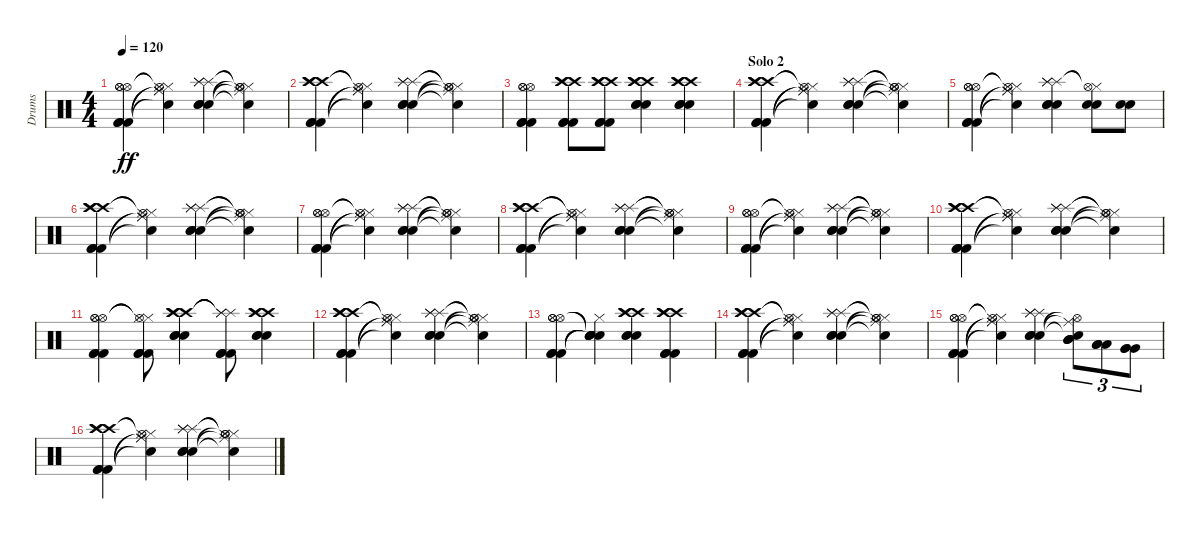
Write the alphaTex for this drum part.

\track ("Drums" "Drums") {instrument percussion}
\staff {score}
\articulation defaults
\ts (4 4)
\tempo 120
\clef neutral
\ks c
("Hi-Hat (open)" "Hi-Hat (open)" "Hi-Hat (open)" "Kick (hit) 2" "Kick (hit) 2" "Kick (hit) 2").4{dy ff} ("Hi-Hat (closed)" "Hi-Hat (closed)"{t} "Hi-Hat (open)"{t} "Ride (middle)"{t} "Ride (middle)"{t} "Snare (hit)"{t}).4 ("Splash (hit)" "Splash (hit)" "Splash (hit)" "Snare (hit) 2" "Snare (hit) 2" "Snare (hit) 2").4 ("Hi-Hat (closed)" "Hi-Hat (closed)"{t} "Hi-Hat (open)"{t} "Hi-Hat (open)"{t} "Ride (middle)"{t} "Snare (hit)"{t}).4 |
("Crash high (hit)" "Crash high (hit)" "Crash high (hit)" "Kick (hit) 2" "Kick (hit) 2" "Kick (hit) 2").4 ("Hi-Hat (closed)" "Hi-Hat (closed)"{t} "Hi-Hat (open)"{t} "Ride (middle)"{t} "Ride (middle)"{t} "Snare (hit)"{t}).4 ("Splash (hit)" "Splash (hit)" "Splash (hit)" "Snare (hit) 2" "Snare (hit) 2" "Snare (hit) 2").4 ("Hi-Hat (closed)" "Hi-Hat (closed)"{t} "Hi-Hat (open)"{t} "Hi-Hat (open)"{t} "Ride (middle)"{t} "Snare (hit)"{t}).4 |
("Hi-Hat (open)" "Hi-Hat (open)" "Hi-Hat (open)" "Kick (hit) 2" "Kick (hit) 2" "Kick (hit) 2").4 ("Crash high (hit)" "Crash high (hit)" "Crash high (hit)" "Kick (hit) 2" "Kick (hit) 2" "Kick (hit) 2").8 ("Crash high (hit)" "Crash high (hit)" "Crash high (hit)" "Kick (hit) 2" "Kick (hit) 2" "Kick (hit) 2").8 ("Crash high (hit)" "Crash high (hit)" "Crash high (hit)" "Snare (hit) 2" "Snare (hit) 2" "Snare (hit) 2").4 ("Crash high (hit)" "Crash high (hit)" "Crash high (hit)" "Snare (hit) 2" "Snare (hit) 2" "Snare (hit) 2").4 |
\section ("" "Solo 2")
("Crash high (hit)" "Crash high (hit)" "Crash high (hit)" "Kick (hit) 2" "Kick (hit) 2" "Kick (hit) 2").4 ("Hi-Hat (closed)" "Hi-Hat (closed)"{t} "Hi-Hat (open)"{t} "Ride (middle)"{t} "Ride (middle)"{t} "Snare (hit)"{t}).4 ("Splash (hit)" "Splash (hit)" "Splash (hit)" "Snare (hit) 2" "Snare (hit) 2" "Snare (hit) 2").4 ("Hi-Hat (closed)" "Hi-Hat (closed)"{t} "Hi-Hat (open)"{t} "Hi-Hat (open)"{t} "Ride (middle)"{t} "Snare (hit)"{t}).4 |
("Hi-Hat (open)" "Hi-Hat (open)" "Hi-Hat (open)" "Kick (hit) 2" "Kick (hit) 2" "Kick (hit) 2").4 ("Hi-Hat (closed)" "Hi-Hat (closed)"{t} "Hi-Hat (open)"{t} "Ride (middle)"{t} "Ride (middle)"{t} "Snare (hit)"{t}).4 ("Splash (hit)" "Splash (hit)" "Splash (hit)" "Snare (hit) 2" "Snare (hit) 2" "Snare (hit) 2").4 ("Hi-Hat (closed)"{t} "Hi-Hat (open)"{t} "Snare (hit) 2" "Snare (hit) 2").8 ("Snare (hit) 2" "Snare (hit) 2").8 |
("Crash high (hit)" "Crash high (hit)" "Crash high (hit)" "Kick (hit) 2" "Kick (hit) 2" "Kick (hit) 2").4 ("Hi-Hat (closed)" "Hi-Hat (closed)"{t} "Hi-Hat (open)"{t} "Ride (middle)"{t} "Ride (middle)"{t} "Snare (hit)"{t}).4 ("Splash (hit)" "Splash (hit)" "Splash (hit)" "Snare (hit) 2" "Snare (hit) 2" "Snare (hit) 2").4 ("Hi-Hat (closed)" "Hi-Hat (closed)"{t} "Hi-Hat (open)"{t} "Hi-Hat (open)"{t} "Ride (middle)"{t} "Snare (hit)"{t}).4 |
("Hi-Hat (open)" "Hi-Hat (open)" "Hi-Hat (open)" "Kick (hit) 2" "Kick (hit) 2" "Kick (hit) 2").4 ("Hi-Hat (closed)" "Hi-Hat (closed)"{t} "Hi-Hat (open)"{t} "Ride (middle)"{t} "Ride (middle)"{t} "Snare (hit)"{t}).4 ("Splash (hit)" "Splash (hit)" "Splash (hit)" "Snare (hit) 2" "Snare (hit) 2" "Snare (hit) 2").4 ("Hi-Hat (closed)" "Hi-Hat (closed)"{t} "Hi-Hat (open)"{t} "Hi-Hat (open)"{t} "Ride (middle)"{t} "Snare (hit)"{t}).4 |
("Crash high (hit)" "Crash high (hit)" "Crash high (hit)" "Kick (hit) 2" "Kick (hit) 2" "Kick (hit) 2").4 ("Hi-Hat (closed)" "Hi-Hat (closed)"{t} "Hi-Hat (open)"{t} "Ride (middle)"{t} "Ride (middle)"{t} "Snare (hit)"{t}).4 ("Splash (hit)" "Splash (hit)" "Splash (hit)" "Snare (hit) 2" "Snare (hit) 2" "Snare (hit) 2").4 ("Hi-Hat (closed)" "Hi-Hat (closed)"{t} "Hi-Hat (open)"{t} "Hi-Hat (open)"{t} "Ride (middle)"{t} "Snare (hit)"{t}).4 |
("Hi-Hat (open)" "Hi-Hat (open)" "Hi-Hat (open)" "Kick (hit) 2" "Kick (hit) 2" "Kick (hit) 2").4 ("Hi-Hat (closed)" "Hi-Hat (closed)"{t} "Hi-Hat (open)"{t} "Ride (middle)"{t} "Ride (middle)"{t} "Snare (hit)"{t}).4 ("Splash (hit)" "Splash (hit)" "Splash (hit)" "Snare (hit) 2" "Snare (hit) 2" "Snare (hit) 2").4 ("Hi-Hat (closed)" "Hi-Hat (closed)"{t} "Hi-Hat (open)"{t} "Hi-Hat (open)"{t} "Ride (middle)"{t} "Snare (hit)"{t}).4 |
("Crash high (hit)" "Crash high (hit)" "Crash high (hit)" "Kick (hit) 2" "Kick (hit) 2" "Kick (hit) 2").4 ("Hi-Hat (closed)" "Hi-Hat (closed)"{t} "Hi-Hat (open)"{t} "Ride (middle)"{t} "Ride (middle)"{t} "Snare (hit)"{t}).4 ("Splash (hit)" "Splash (hit)" "Splash (hit)" "Snare (hit) 2" "Snare (hit) 2" "Snare (hit) 2").4 ("Hi-Hat (closed)" "Hi-Hat (closed)"{t} "Hi-Hat (open)"{t} "Hi-Hat (open)"{t} "Ride (middle)"{t} "Snare (hit)"{t}).4 |
("Hi-Hat (open)" "Hi-Hat (open)" "Hi-Hat (open)" "Kick (hit) 2" "Kick (hit) 2" "Kick (hit) 2").4 ("Hi-Hat (closed)"{t} "Hi-Hat (closed)"{t} "Hi-Hat (open)"{t} "Kick (hit) 2" "Kick (hit) 2" "Kick (hit) 2").8 ("Crash high (hit)" "Crash high (hit)" "Crash high (hit)" "Snare (hit) 2" "Snare (hit) 2" "Snare (hit) 2").4 ("Splash (hit)"{t} "Splash (hit)"{t} "Splash (hit)"{t} "Kick (hit) 2" "Kick (hit) 2" "Kick (hit) 2").8 ("Crash high (hit)" "Crash high (hit)" "Crash high (hit)" "Snare (hit) 2" "Snare (hit) 2" "Snare (hit) 2").4 |
("Crash high (hit)" "Crash high (hit)" "Crash high (hit)" "Kick (hit) 2" "Kick (hit) 2" "Kick (hit) 2").4 ("Hi-Hat (closed)" "Hi-Hat (closed)"{t} "Hi-Hat (open)"{t} "Ride (middle)"{t} "Ride (middle)"{t} "Snare (hit)"{t}).4 ("Splash (hit)" "Splash (hit)" "Splash (hit)" "Snare (hit) 2" "Snare (hit) 2" "Snare (hit) 2").4 ("Hi-Hat (closed)" "Hi-Hat (closed)"{t} "Hi-Hat (open)"{t} "Hi-Hat (open)"{t} "Ride (middle)"{t} "Snare (hit)"{t}).4 |
("Hi-Hat (open)" "Hi-Hat (open)" "Hi-Hat (open)" "Kick (hit) 2" "Kick (hit) 2" "Kick (hit) 2").4 ("Hi-Hat (closed)" "Snare (hit)"{t} "Snare (hit)"{t} "Snare (hit)"{t} "Snare (hit)"{t} "Snare (hit)"{t}).4 ("Crash high (hit)" "Crash high (hit)" "Crash high (hit)" "Snare (hit) 2" "Snare (hit) 2" "Snare (hit) 2").4 ("Crash high (hit)" "Crash high (hit)" "Crash high (hit)" "Kick (hit) 2" "Kick (hit) 2" "Kick (hit) 2").4 |
("Crash high (hit)" "Crash high (hit)" "Crash high (hit)" "Kick (hit) 2" "Kick (hit) 2" "Kick (hit) 2").4 ("Hi-Hat (closed)" "Hi-Hat (closed)"{t} "Hi-Hat (open)"{t} "Ride (middle)"{t} "Ride (middle)"{t} "Snare (hit)"{t}).4 ("Splash (hit)" "Splash (hit)" "Splash (hit)" "Snare (hit) 2" "Snare (hit) 2" "Snare (hit) 2").4 ("Hi-Hat (closed)" "Hi-Hat (closed)"{t} "Hi-Hat (open)"{t} "Hi-Hat (open)"{t} "Ride (middle)"{t} "Snare (hit)"{t}).4 |
("Hi-Hat (open)" "Hi-Hat (open)" "Hi-Hat (open)" "Kick (hit) 2" "Kick (hit) 2" "Kick (hit) 2").4 ("Hi-Hat (closed)" "Hi-Hat (closed)"{t} "Hi-Hat (open)"{t} "Ride (middle)"{t} "Ride (middle)"{t} "Snare (hit)"{t}).4 ("Splash (hit)" "Splash (hit)" "Splash (hit)" "Snare (hit) 2" "Snare (hit) 2" "Snare (hit) 2").4 ("Mid Tom (hit)" "Mid Tom (hit)" "Mid Tom (hit)" "Hi-Hat (open)"{t} "Ride (middle)"{t} "Snare (hit)"{t}).8{tu (3 2)} ("Low Tom (hit)" "Low Tom (hit)" "Low Tom (hit)").8{tu (3 2)} ("Very Low Tom (hit)" "Very Low Tom (hit)" "Very Low Tom (hit)").8{tu (3 2)} |
("Crash high (hit)" "Crash high (hit)" "Crash high (hit)" "Kick (hit) 2" "Kick (hit) 2" "Kick (hit) 2").4 ("Hi-Hat (closed)" "Hi-Hat (closed)"{t} "Hi-Hat (open)"{t} "Ride (middle)"{t} "Ride (middle)"{t} "Snare (hit)"{t}).4 ("Splash (hit)" "Splash (hit)" "Splash (hit)" "Snare (hit) 2" "Snare (hit) 2" "Snare (hit) 2").4 ("Hi-Hat (closed)" "Hi-Hat (closed)"{t} "Hi-Hat (open)"{t} "Hi-Hat (open)"{t} "Ride (middle)"{t} "Snare (hit)"{t}).4
